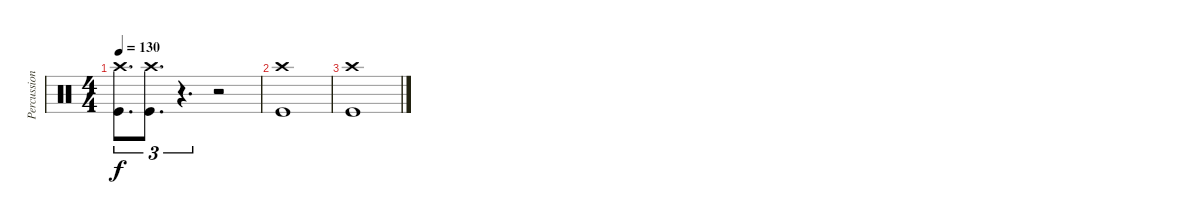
\track ("Percussioni" "Percussion") {instrument percussion}
\staff {score}
\articulation defaults
\ts (4 4)
\tempo 130
\clef neutral
\ks c
("Kick (hit)" "Crash high (hit)").8{d tu (3 2) dy f} ("Kick (hit)" "Crash high (hit)").8{d tu (3 2)} r.4{d tu (3 2)} r.2 |
("Kick (hit)" "Crash high (hit)").1 |
("Kick (hit)" "Crash high (hit)").1
